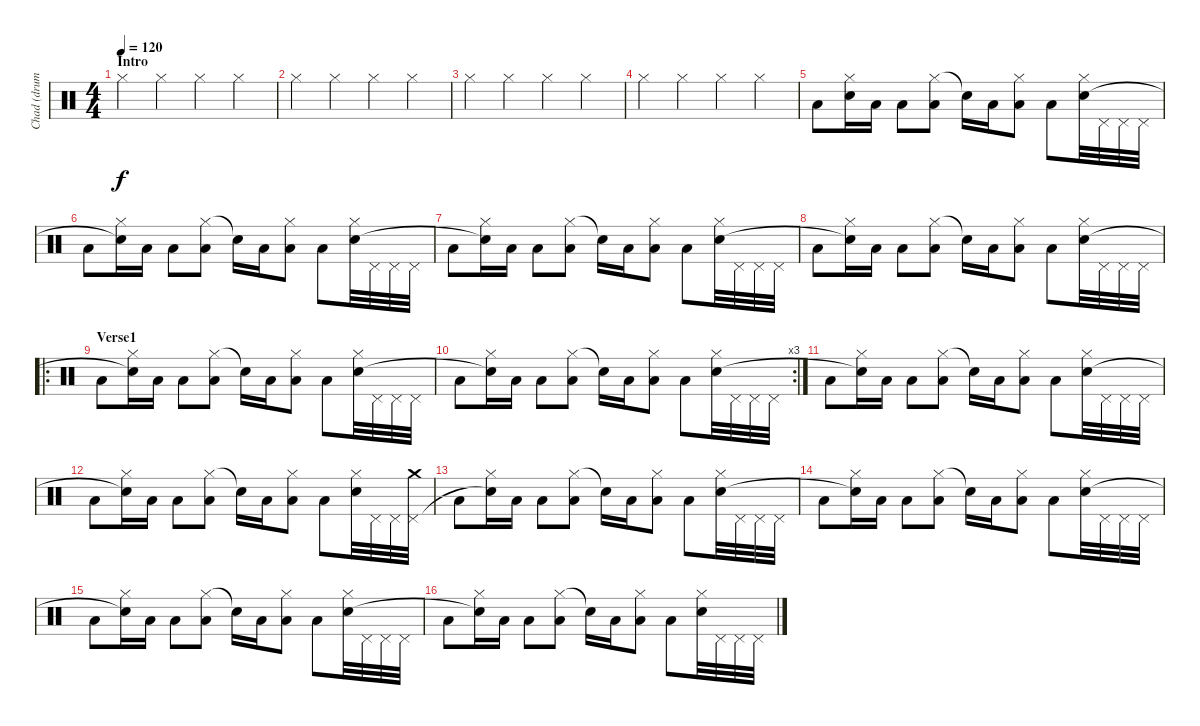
\track ("Chad (drums)" "Chad (drum") {instrument percussion}
\staff {score}
\articulation defaults
\ts (4 4)
\section ("" "Intro")
\tempo 120
\clef neutral
\ks c "Hi-Hat (closed)".4{dy f} "Hi-Hat (closed)".4 "Hi-Hat (closed)".4 "Hi-Hat (closed)".4
|
"Hi-Hat (closed)".4 "Hi-Hat (closed)".4 "Hi-Hat (closed)".4 "Hi-Hat (closed)".4 |
"Hi-Hat (closed)".4 "Hi-Hat (closed)".4 "Hi-Hat (closed)".4 "Hi-Hat (closed)".4 |
"Hi-Hat (closed)".4 "Hi-Hat (closed)".4 "Hi-Hat (closed)".4 "Hi-Hat (closed)".4 |
"Low Tom (hit)".8 ("Hi-Hat (closed)" "Snare (hit)").16 "Low Tom (hit)".16 "Low Floor Tom (hit)".8 ("Hi-Hat (closed)" "Low Tom (hit)").8 "Snare (hit)"{t}.16 "Low Tom (hit)".16 ("Hi-Hat (closed)" "Low Floor Tom (hit)").8 "Low Tom (hit)".8 ("Hi-Hat (closed)" "Snare (hit) 2").32 "Pedal Hi-Hat (hit)".32 "Pedal Hi-Hat (hit)".32 "Pedal Hi-Hat (hit)".32 |
"Low Tom (hit)".8 ("Hi-Hat (closed)" "Snare (hit)"{t}).16 "Low Tom (hit)".16 "Low Floor Tom (hit)".8 ("Hi-Hat (closed)" "Low Tom (hit)").8 "Snare (hit)"{t}.16 "Low Tom (hit)".16 ("Hi-Hat (closed)" "Low Floor Tom (hit)").8 "Low Tom (hit)".8 ("Hi-Hat (closed)" "Snare (hit) 2").32 "Pedal Hi-Hat (hit)".32 "Pedal Hi-Hat (hit)".32 "Pedal Hi-Hat (hit)".32 |
"Low Tom (hit)".8 ("Hi-Hat (closed)" "Snare (hit)"{t}).16 "Low Tom (hit)".16 "Low Floor Tom (hit)".8 ("Hi-Hat (closed)" "Low Tom (hit)").8 "Snare (hit)"{t}.16 "Low Tom (hit)".16 ("Hi-Hat (closed)" "Low Floor Tom (hit)").8 "Low Tom (hit)".8 ("Hi-Hat (closed)" "Snare (hit) 2").32 "Pedal Hi-Hat (hit)".32 "Pedal Hi-Hat (hit)".32 "Pedal Hi-Hat (hit)".32 |
"Low Tom (hit)".8 ("Hi-Hat (closed)" "Snare (hit)"{t}).16 "Low Tom (hit)".16 "Low Floor Tom (hit)".8 ("Hi-Hat (closed)" "Low Tom (hit)").8 "Snare (hit)"{t}.16 "Low Tom (hit)".16 ("Hi-Hat (closed)" "Low Floor Tom (hit)").8 "Low Tom (hit)".8 ("Hi-Hat (closed)" "Snare (hit) 2").32 "Pedal Hi-Hat (hit)".32 "Pedal Hi-Hat (hit)".32 "Pedal Hi-Hat (hit)".32 |
\ro
\section ("" "Verse1")
"Low Tom (hit)".8 ("Hi-Hat (closed)" "Snare (hit)"{t}).16 "Low Tom (hit)".16 "Low Floor Tom (hit)".8 ("Hi-Hat (closed)" "Low Tom (hit)").8 "Snare (hit)"{t}.16 "Low Tom (hit)".16 ("Hi-Hat (closed)" "Low Floor Tom (hit)").8 "Low Tom (hit)".8 ("Hi-Hat (closed)" "Snare (hit) 2").32 "Pedal Hi-Hat (hit)".32 "Pedal Hi-Hat (hit)".32 "Pedal Hi-Hat (hit)".32 |
\rc 3 "Low Tom (hit)".8
("Hi-Hat (closed)" "Snare (hit)"{t}).16 "Low Tom (hit)".16 "Low Floor Tom (hit)".8 ("Hi-Hat (closed)" "Low Tom (hit)").8 "Snare (hit)"{t}.16 "Low Tom (hit)".16 ("Hi-Hat (closed)" "Low Floor Tom (hit)").8 "Low Tom (hit)".8 ("Hi-Hat (closed)" "Snare (hit) 2").32 "Pedal Hi-Hat (hit)".32 "Pedal Hi-Hat (hit)".32 "Pedal Hi-Hat (hit)".32 |
"Low Tom (hit)".8 ("Hi-Hat (closed)" "Snare (hit)"{t}).16 "Low Tom (hit)".16 "Low Floor Tom (hit)".8 ("Hi-Hat (closed)" "Low Tom (hit)").8 "Snare (hit)"{t}.16 "Low Tom (hit)".16 ("Hi-Hat (closed)" "Low Floor Tom (hit)").8 "Low Tom (hit)".8 ("Hi-Hat (closed)" "Snare (hit) 2").32 "Pedal Hi-Hat (hit)".32 "Pedal Hi-Hat (hit)".32 "Pedal Hi-Hat (hit)".32 |
"Low Tom (hit)".8 ("Hi-Hat (closed)" "Snare (hit)"{t}).16 "Low Tom (hit)".16 "Low Floor Tom (hit)".8 ("Hi-Hat (closed)" "Low Tom (hit)").8 "Snare (hit)"{t}.16 "Low Tom (hit)".16 ("Hi-Hat (closed)" "Low Floor Tom (hit)").8 "Low Tom (hit)".8 ("Hi-Hat (closed)" "Snare (hit) 2").32 "Pedal Hi-Hat (hit)".32 "Pedal Hi-Hat (hit)".32 ("Crash medium (hit)" "Pedal Hi-Hat (hit)").32 |
"Low Tom (hit)".8 ("Hi-Hat (closed)" "Snare (hit)"{t}).16 "Low Tom (hit)".16 "Low Floor Tom (hit)".8 ("Hi-Hat (closed)" "Low Tom (hit)").8 "Snare (hit)"{t}.16 "Low Tom (hit)".16 ("Hi-Hat (closed)" "Low Floor Tom (hit)").8 "Low Tom (hit)".8 ("Hi-Hat (closed)" "Snare (hit) 2").32 "Pedal Hi-Hat (hit)".32 "Pedal Hi-Hat (hit)".32 "Pedal Hi-Hat (hit)".32 |
"Low Tom (hit)".8 ("Hi-Hat (closed)" "Snare (hit)"{t}).16 "Low Tom (hit)".16 "Low Floor Tom (hit)".8 ("Hi-Hat (closed)" "Low Tom (hit)").8 "Snare (hit)"{t}.16 "Low Tom (hit)".16 ("Hi-Hat (closed)" "Low Floor Tom (hit)").8 "Low Tom (hit)".8 ("Hi-Hat (closed)" "Snare (hit) 2").32 "Pedal Hi-Hat (hit)".32 "Pedal Hi-Hat (hit)".32 "Pedal Hi-Hat (hit)".32 |
"Low Tom (hit)".8 ("Hi-Hat (closed)" "Snare (hit)"{t}).16 "Low Tom (hit)".16 "Low Floor Tom (hit)".8 ("Hi-Hat (closed)" "Low Tom (hit)").8 "Snare (hit)"{t}.16 "Low Tom (hit)".16 ("Hi-Hat (closed)" "Low Floor Tom (hit)").8 "Low Tom (hit)".8 ("Hi-Hat (closed)" "Snare (hit) 2").32 "Pedal Hi-Hat (hit)".32 "Pedal Hi-Hat (hit)".32 "Pedal Hi-Hat (hit)".32 |
"Low Tom (hit)".8 ("Hi-Hat (closed)" "Snare (hit)"{t}).16 "Low Tom (hit)".16 "Low Floor Tom (hit)".8 ("Hi-Hat (closed)" "Low Tom (hit)").8 "Snare (hit)"{t}.16 "Low Tom (hit)".16 ("Hi-Hat (closed)" "Low Floor Tom (hit)").8 "Low Tom (hit)".8 ("Hi-Hat (closed)" "Snare (hit) 2").32 "Pedal Hi-Hat (hit)".32 "Pedal Hi-Hat (hit)".32 "Pedal Hi-Hat (hit)".32
